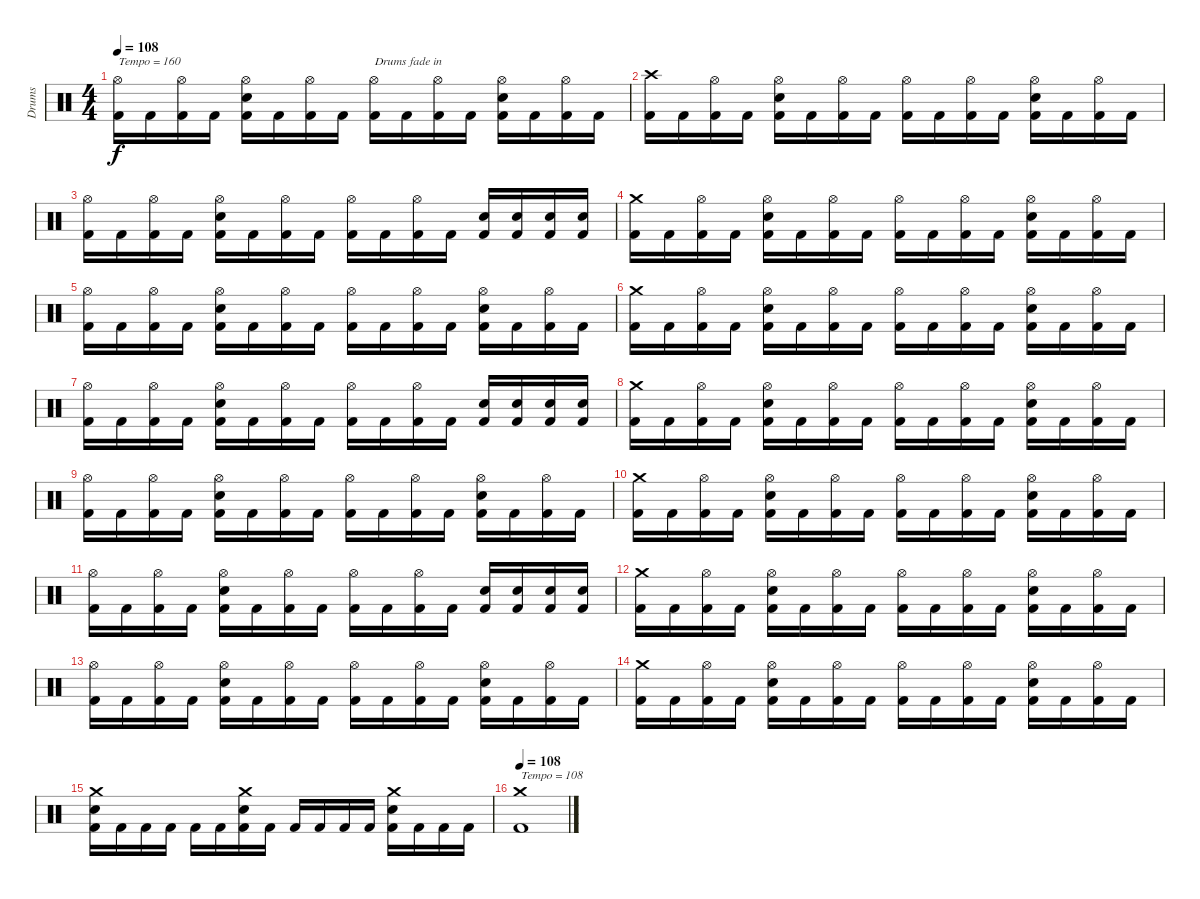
\track ("Drums" "Drums") {instrument percussion}
\staff {score}
\articulation defaults
\ts (4 4)
\tempo 108
\tempo 160
\tempo 108
\clef neutral
\ks c
("Hi-Hat (open)" "Kick (hit) 2").16{txt "Tempo = 160" dy f volume 1} "Kick (hit) 2".16 ("Hi-Hat (open)" "Kick (hit) 2").16 "Kick (hit) 2".16 ("Hi-Hat (open)" "Electric Snare (hit)" "Kick (hit) 2").16 "Kick (hit) 2".16 ("Hi-Hat (open)" "Kick (hit) 2").16 "Kick (hit) 2".16 ("Hi-Hat (open)" "Kick (hit) 2").16{txt "Drums fade in"} "Kick (hit) 2".16 ("Hi-Hat (open)" "Kick (hit) 2").16 "Kick (hit) 2".16 ("Hi-Hat (open)" "Electric Snare (hit)" "Kick (hit) 2").16 "Kick (hit) 2".16 ("Hi-Hat (open)" "Kick (hit) 2").16 "Kick (hit) 2".16 |
("Crash high (hit)" "Kick (hit) 2").16{volume 2} "Kick (hit) 2".16 ("Hi-Hat (open)" "Kick (hit) 2").16 "Kick (hit) 2".16 ("Hi-Hat (open)" "Electric Snare (hit)" "Kick (hit) 2").16 "Kick (hit) 2".16 ("Hi-Hat (open)" "Kick (hit) 2").16 "Kick (hit) 2".16 ("Hi-Hat (open)" "Kick (hit) 2").16{volume 3} "Kick (hit) 2".16 ("Hi-Hat (open)" "Kick (hit) 2").16 "Kick (hit) 2".16 ("Hi-Hat (open)" "Electric Snare (hit)" "Kick (hit) 2").16 "Kick (hit) 2".16 ("Hi-Hat (open)" "Kick (hit) 2").16 "Kick (hit) 2".16 |
("Hi-Hat (open)" "Kick (hit) 2").16{volume 4} "Kick (hit) 2".16 ("Hi-Hat (open)" "Kick (hit) 2").16 "Kick (hit) 2".16 ("Hi-Hat (open)" "Electric Snare (hit)" "Kick (hit) 2").16 "Kick (hit) 2".16 ("Hi-Hat (open)" "Kick (hit) 2").16 "Kick (hit) 2".16 ("Hi-Hat (open)" "Kick (hit) 2").16 "Kick (hit) 2".16 ("Hi-Hat (open)" "Kick (hit) 2").16 "Kick (hit) 2".16 ("Electric Snare (hit)" "Kick (hit) 2").16 ("Electric Snare (hit)" "Kick (hit) 2").16 ("Electric Snare (hit)" "Kick (hit) 2").16 ("Electric Snare (hit)" "Kick (hit) 2").16 |
("Crash medium (hit)" "Kick (hit) 2").16{volume 5} "Kick (hit) 2".16 ("Hi-Hat (open)" "Kick (hit) 2").16 "Kick (hit) 2".16 ("Hi-Hat (open)" "Electric Snare (hit)" "Kick (hit) 2").16 "Kick (hit) 2".16 ("Hi-Hat (open)" "Kick (hit) 2").16 "Kick (hit) 2".16 ("Hi-Hat (open)" "Kick (hit) 2").16 "Kick (hit) 2".16 ("Hi-Hat (open)" "Kick (hit) 2").16 "Kick (hit) 2".16 ("Hi-Hat (open)" "Electric Snare (hit)" "Kick (hit) 2").16 "Kick (hit) 2".16 ("Hi-Hat (open)" "Kick (hit) 2").16 "Kick (hit) 2".16 |
("Hi-Hat (open)" "Kick (hit) 2").16{volume 6} "Kick (hit) 2".16 ("Hi-Hat (open)" "Kick (hit) 2").16 "Kick (hit) 2".16 ("Hi-Hat (open)" "Electric Snare (hit)" "Kick (hit) 2").16 "Kick (hit) 2".16 ("Hi-Hat (open)" "Kick (hit) 2").16 "Kick (hit) 2".16 ("Hi-Hat (open)" "Kick (hit) 2").16{volume 7} "Kick (hit) 2".16 ("Hi-Hat (open)" "Kick (hit) 2").16 "Kick (hit) 2".16 ("Hi-Hat (open)" "Electric Snare (hit)" "Kick (hit) 2").16 "Kick (hit) 2".16 ("Hi-Hat (open)" "Kick (hit) 2").16 "Kick (hit) 2".16 |
("Crash medium (hit)" "Kick (hit) 2").16{volume 8} "Kick (hit) 2".16 ("Hi-Hat (open)" "Kick (hit) 2").16 "Kick (hit) 2".16 ("Hi-Hat (open)" "Electric Snare (hit)" "Kick (hit) 2").16 "Kick (hit) 2".16 ("Hi-Hat (open)" "Kick (hit) 2").16 "Kick (hit) 2".16 ("Hi-Hat (open)" "Kick (hit) 2").16{volume 9} "Kick (hit) 2".16 ("Hi-Hat (open)" "Kick (hit) 2").16 "Kick (hit) 2".16 ("Hi-Hat (open)" "Electric Snare (hit)" "Kick (hit) 2").16 "Kick (hit) 2".16 ("Hi-Hat (open)" "Kick (hit) 2").16 "Kick (hit) 2".16 |
("Hi-Hat (open)" "Kick (hit) 2").16{volume 10} "Kick (hit) 2".16 ("Hi-Hat (open)" "Kick (hit) 2").16 "Kick (hit) 2".16 ("Hi-Hat (open)" "Electric Snare (hit)" "Kick (hit) 2").16 "Kick (hit) 2".16 ("Hi-Hat (open)" "Kick (hit) 2").16 "Kick (hit) 2".16 ("Hi-Hat (open)" "Kick (hit) 2").16{volume 11} "Kick (hit) 2".16 ("Hi-Hat (open)" "Kick (hit) 2").16 "Kick (hit) 2".16 ("Electric Snare (hit)" "Kick (hit) 2").16 ("Electric Snare (hit)" "Kick (hit) 2").16 ("Electric Snare (hit)" "Kick (hit) 2").16 ("Electric Snare (hit)" "Kick (hit) 2").16 |
("Crash medium (hit)" "Kick (hit) 2").16{volume 12} "Kick (hit) 2".16 ("Hi-Hat (open)" "Kick (hit) 2").16 "Kick (hit) 2".16 ("Hi-Hat (open)" "Electric Snare (hit)" "Kick (hit) 2").16 "Kick (hit) 2".16 ("Hi-Hat (open)" "Kick (hit) 2").16 "Kick (hit) 2".16 ("Hi-Hat (open)" "Kick (hit) 2").16{volume 13} "Kick (hit) 2".16 ("Hi-Hat (open)" "Kick (hit) 2").16 "Kick (hit) 2".16 ("Hi-Hat (open)" "Electric Snare (hit)" "Kick (hit) 2").16 "Kick (hit) 2".16 ("Hi-Hat (open)" "Kick (hit) 2").16 "Kick (hit) 2".16 |
("Hi-Hat (open)" "Kick (hit) 2").16{volume 14} "Kick (hit) 2".16 ("Hi-Hat (open)" "Kick (hit) 2").16 "Kick (hit) 2".16 ("Hi-Hat (open)" "Electric Snare (hit)" "Kick (hit) 2").16 "Kick (hit) 2".16 ("Hi-Hat (open)" "Kick (hit) 2").16 "Kick (hit) 2".16 ("Hi-Hat (open)" "Kick (hit) 2").16{volume 15} "Kick (hit) 2".16 ("Hi-Hat (open)" "Kick (hit) 2").16 "Kick (hit) 2".16 ("Hi-Hat (open)" "Electric Snare (hit)" "Kick (hit) 2").16 "Kick (hit) 2".16 ("Hi-Hat (open)" "Kick (hit) 2").16 "Kick (hit) 2".16 |
("Crash medium (hit)" "Kick (hit) 2").16{volume 16} "Kick (hit) 2".16 ("Hi-Hat (open)" "Kick (hit) 2").16 "Kick (hit) 2".16 ("Hi-Hat (open)" "Electric Snare (hit)" "Kick (hit) 2").16 "Kick (hit) 2".16 ("Hi-Hat (open)" "Kick (hit) 2").16 "Kick (hit) 2".16 ("Hi-Hat (open)" "Kick (hit) 2").16 "Kick (hit) 2".16 ("Hi-Hat (open)" "Kick (hit) 2").16 "Kick (hit) 2".16 ("Hi-Hat (open)" "Electric Snare (hit)" "Kick (hit) 2").16 "Kick (hit) 2".16 ("Hi-Hat (open)" "Kick (hit) 2").16 "Kick (hit) 2".16 |
("Hi-Hat (open)" "Kick (hit) 2").16 "Kick (hit) 2".16 ("Hi-Hat (open)" "Kick (hit) 2").16 "Kick (hit) 2".16 ("Hi-Hat (open)" "Electric Snare (hit)" "Kick (hit) 2").16 "Kick (hit) 2".16 ("Hi-Hat (open)" "Kick (hit) 2").16 "Kick (hit) 2".16 ("Hi-Hat (open)" "Kick (hit) 2").16 "Kick (hit) 2".16 ("Hi-Hat (open)" "Kick (hit) 2").16 "Kick (hit) 2".16 ("Electric Snare (hit)" "Kick (hit) 2").16 ("Electric Snare (hit)" "Kick (hit) 2").16 ("Electric Snare (hit)" "Kick (hit) 2").16 ("Electric Snare (hit)" "Kick (hit) 2").16 |
("Crash medium (hit)" "Kick (hit) 2").16 "Kick (hit) 2".16 ("Hi-Hat (open)" "Kick (hit) 2").16 "Kick (hit) 2".16 ("Hi-Hat (open)" "Electric Snare (hit)" "Kick (hit) 2").16 "Kick (hit) 2".16 ("Hi-Hat (open)" "Kick (hit) 2").16 "Kick (hit) 2".16 ("Hi-Hat (open)" "Kick (hit) 2").16 "Kick (hit) 2".16 ("Hi-Hat (open)" "Kick (hit) 2").16 "Kick (hit) 2".16 ("Hi-Hat (open)" "Electric Snare (hit)" "Kick (hit) 2").16 "Kick (hit) 2".16 ("Hi-Hat (open)" "Kick (hit) 2").16 "Kick (hit) 2".16 |
("Hi-Hat (open)" "Kick (hit) 2").16 "Kick (hit) 2".16 ("Hi-Hat (open)" "Kick (hit) 2").16 "Kick (hit) 2".16 ("Hi-Hat (open)" "Electric Snare (hit)" "Kick (hit) 2").16 "Kick (hit) 2".16 ("Hi-Hat (open)" "Kick (hit) 2").16 "Kick (hit) 2".16 ("Hi-Hat (open)" "Kick (hit) 2").16 "Kick (hit) 2".16 ("Hi-Hat (open)" "Kick (hit) 2").16 "Kick (hit) 2".16 ("Hi-Hat (open)" "Electric Snare (hit)" "Kick (hit) 2").16 "Kick (hit) 2".16 ("Hi-Hat (open)" "Kick (hit) 2").16 "Kick (hit) 2".16 |
("Crash medium (hit)" "Kick (hit) 2").16 "Kick (hit) 2".16 ("Hi-Hat (open)" "Kick (hit) 2").16 "Kick (hit) 2".16 ("Hi-Hat (open)" "Electric Snare (hit)" "Kick (hit) 2").16 "Kick (hit) 2".16 ("Hi-Hat (open)" "Kick (hit) 2").16 "Kick (hit) 2".16 ("Hi-Hat (open)" "Kick (hit) 2").16 "Kick (hit) 2".16 ("Hi-Hat (open)" "Kick (hit) 2").16 "Kick (hit) 2".16 ("Hi-Hat (open)" "Electric Snare (hit)" "Kick (hit) 2").16 "Kick (hit) 2".16 ("Hi-Hat (open)" "Kick (hit) 2").16 "Kick (hit) 2".16 |
("Crash medium (hit)" "Electric Snare (hit)" "Kick (hit) 2").16 "Kick (hit) 2".16 "Kick (hit) 2".16 "Kick (hit) 2".16 "Kick (hit) 2".16 "Kick (hit) 2".16 ("Crash medium (hit)" "Electric Snare (hit)" "Kick (hit) 2").16 "Kick (hit) 2".16 "Kick (hit) 2".16 "Kick (hit) 2".16 "Kick (hit) 2".16 "Kick (hit) 2".16 ("Crash medium (hit)" "Electric Snare (hit)" "Kick (hit) 2").16 "Kick (hit) 2".16 "Kick (hit) 2".16 "Kick (hit) 2".16 |
\tempo 108
("Crash medium (hit)" "Kick (hit) 2").1{txt "Tempo = 108"}
